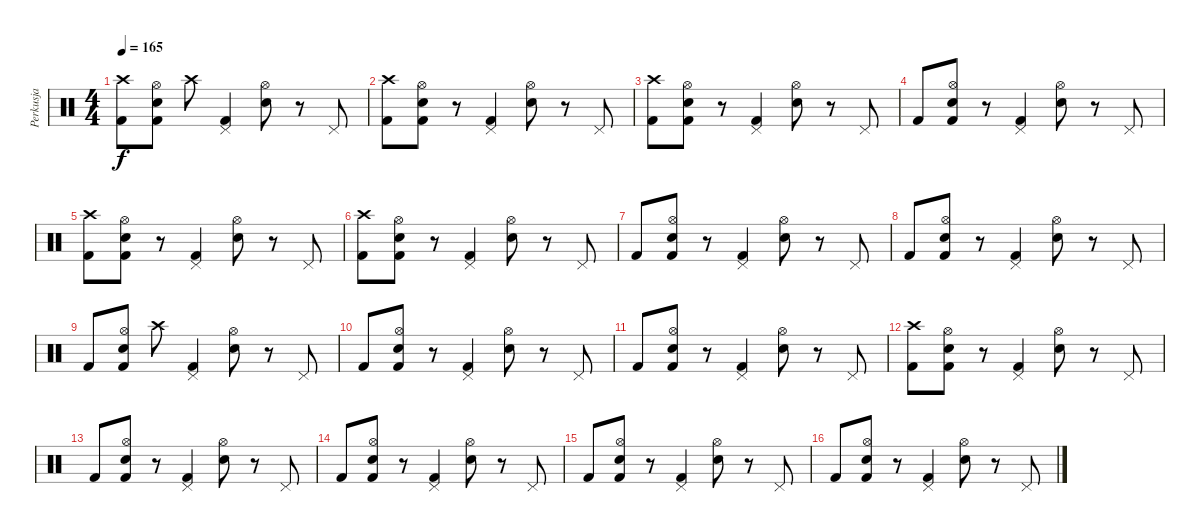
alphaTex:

\track ("Perkusja" "Perkusja") {instrument percussion}
\staff {score}
\articulation defaults
\ts (4 4)
\tempo 165
\clef neutral
\ks c
("Crash high (hit)" "Kick (hit) 2").8{dy f} ("Hi-Hat (open)" "Electric Snare (hit)" "Kick (hit) 2").8 "Crash high (hit)".8 ("Pedal Hi-Hat (hit)" "Kick (hit) 2").4 ("Hi-Hat (open)" "Electric Snare (hit)").8 r.8 "Pedal Hi-Hat (hit)".8 |
("Crash high (hit)" "Kick (hit) 2").8 ("Hi-Hat (open)" "Electric Snare (hit)" "Kick (hit) 2").8 r.8 ("Pedal Hi-Hat (hit)" "Kick (hit) 2").4 ("Hi-Hat (open)" "Electric Snare (hit)").8 r.8 "Pedal Hi-Hat (hit)".8 |
("Crash high (hit)" "Kick (hit) 2").8 ("Hi-Hat (open)" "Electric Snare (hit)" "Kick (hit) 2").8 r.8 ("Pedal Hi-Hat (hit)" "Kick (hit) 2").4 ("Hi-Hat (open)" "Electric Snare (hit)").8 r.8 "Pedal Hi-Hat (hit)".8 |
"Kick (hit) 2".8 ("Hi-Hat (open)" "Electric Snare (hit)" "Kick (hit) 2").8 r.8 ("Pedal Hi-Hat (hit)" "Kick (hit) 2").4 ("Hi-Hat (open)" "Electric Snare (hit)").8 r.8 "Pedal Hi-Hat (hit)".8 |
("Crash high (hit)" "Kick (hit) 2").8 ("Hi-Hat (open)" "Electric Snare (hit)" "Kick (hit) 2").8 r.8 ("Pedal Hi-Hat (hit)" "Kick (hit) 2").4 ("Hi-Hat (open)" "Electric Snare (hit)").8 r.8 "Pedal Hi-Hat (hit)".8 |
("Crash high (hit)" "Kick (hit) 2").8 ("Hi-Hat (open)" "Electric Snare (hit)" "Kick (hit) 2").8 r.8 ("Pedal Hi-Hat (hit)" "Kick (hit) 2").4 ("Hi-Hat (open)" "Electric Snare (hit)").8 r.8 "Pedal Hi-Hat (hit)".8 |
"Kick (hit) 2".8 ("Hi-Hat (open)" "Electric Snare (hit)" "Kick (hit) 2").8 r.8 ("Pedal Hi-Hat (hit)" "Kick (hit) 2").4 ("Hi-Hat (open)" "Electric Snare (hit)").8 r.8 "Pedal Hi-Hat (hit)".8 |
"Kick (hit) 2".8 ("Hi-Hat (open)" "Electric Snare (hit)" "Kick (hit) 2").8 r.8 ("Pedal Hi-Hat (hit)" "Kick (hit) 2").4 ("Hi-Hat (open)" "Electric Snare (hit)").8 r.8 "Pedal Hi-Hat (hit)".8 |
"Kick (hit) 2".8 ("Hi-Hat (open)" "Electric Snare (hit)" "Kick (hit) 2").8 "Crash high (hit)".8 ("Pedal Hi-Hat (hit)" "Kick (hit) 2").4 ("Hi-Hat (open)" "Electric Snare (hit)").8 r.8 "Pedal Hi-Hat (hit)".8 |
"Kick (hit) 2".8 ("Hi-Hat (open)" "Electric Snare (hit)" "Kick (hit) 2").8 r.8 ("Pedal Hi-Hat (hit)" "Kick (hit) 2").4 ("Hi-Hat (open)" "Electric Snare (hit)").8 r.8 "Pedal Hi-Hat (hit)".8 |
"Kick (hit) 2".8 ("Hi-Hat (open)" "Electric Snare (hit)" "Kick (hit) 2").8 r.8 ("Pedal Hi-Hat (hit)" "Kick (hit) 2").4 ("Hi-Hat (open)" "Electric Snare (hit)").8 r.8 "Pedal Hi-Hat (hit)".8 |
("Crash high (hit)" "Kick (hit) 2").8 ("Hi-Hat (open)" "Electric Snare (hit)" "Kick (hit) 2").8 r.8 ("Pedal Hi-Hat (hit)" "Kick (hit) 2").4 ("Hi-Hat (open)" "Electric Snare (hit)").8 r.8 "Pedal Hi-Hat (hit)".8 |
"Kick (hit) 2".8 ("Hi-Hat (open)" "Electric Snare (hit)" "Kick (hit) 2").8 r.8 ("Pedal Hi-Hat (hit)" "Kick (hit) 2").4 ("Hi-Hat (open)" "Electric Snare (hit)").8 r.8 "Pedal Hi-Hat (hit)".8 |
"Kick (hit) 2".8 ("Hi-Hat (open)" "Electric Snare (hit)" "Kick (hit) 2").8 r.8 ("Pedal Hi-Hat (hit)" "Kick (hit) 2").4 ("Hi-Hat (open)" "Electric Snare (hit)").8 r.8 "Pedal Hi-Hat (hit)".8 |
"Kick (hit) 2".8 ("Hi-Hat (open)" "Electric Snare (hit)" "Kick (hit) 2").8 r.8 ("Pedal Hi-Hat (hit)" "Kick (hit) 2").4 ("Hi-Hat (open)" "Electric Snare (hit)").8 r.8 "Pedal Hi-Hat (hit)".8 |
"Kick (hit) 2".8 ("Hi-Hat (open)" "Electric Snare (hit)" "Kick (hit) 2").8 r.8 ("Pedal Hi-Hat (hit)" "Kick (hit) 2").4 ("Hi-Hat (open)" "Electric Snare (hit)").8 r.8 "Pedal Hi-Hat (hit)".8
